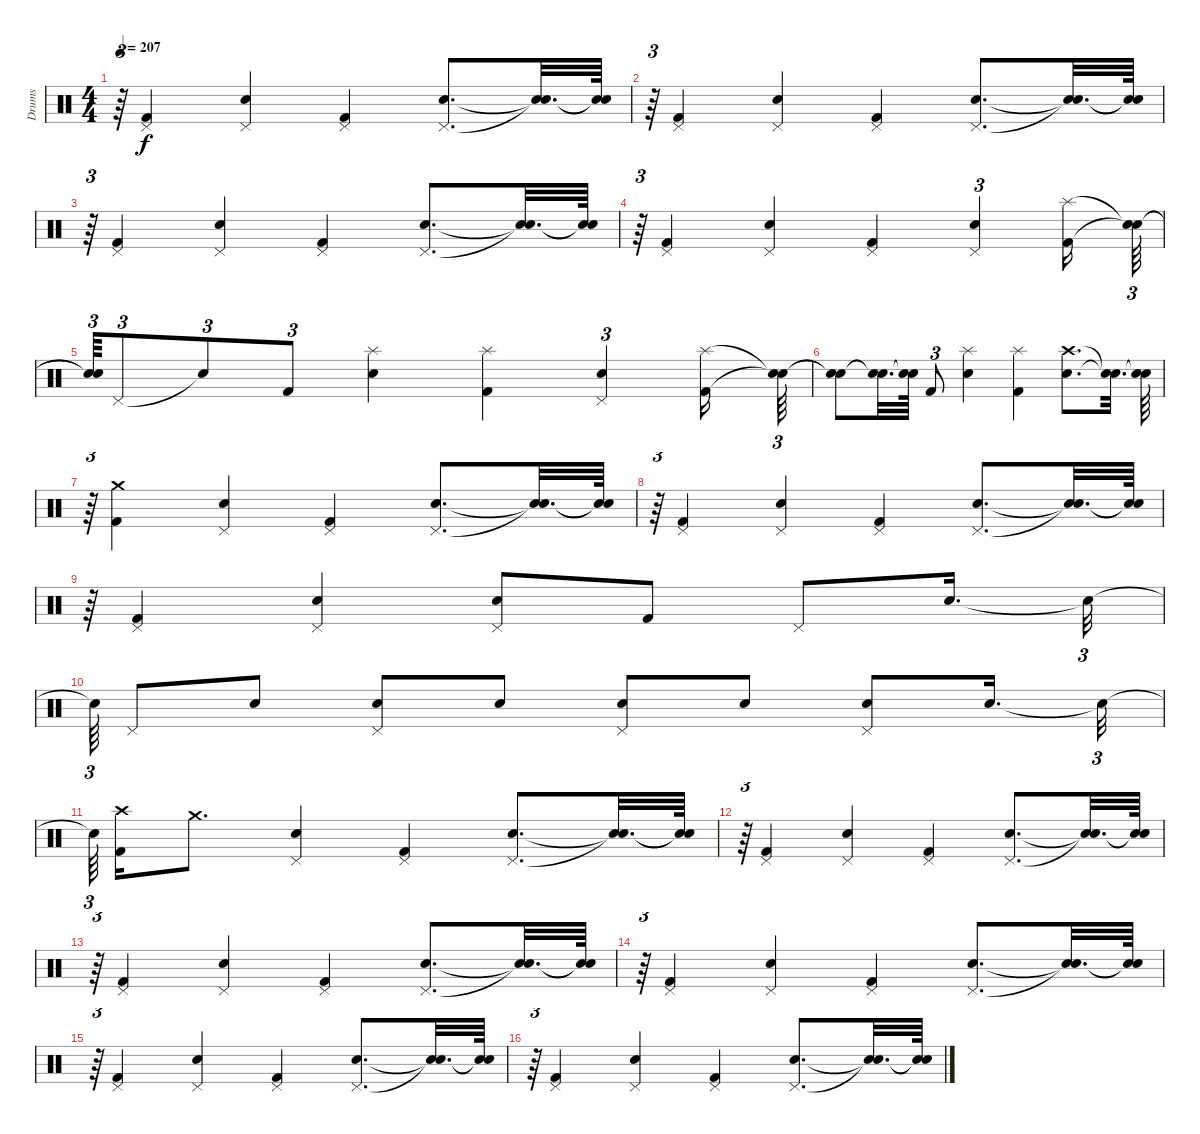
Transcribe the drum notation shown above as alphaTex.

\track ("Drums" "Drums") {instrument percussion}
\staff {score}
\articulation defaults
\ts (4 4)
\tempo 207
\clef neutral
\ks c
r.64{tu (3 2) dy f} ("Pedal Hi-Hat (hit)" "Kick (hit) 2").4 ("Pedal Hi-Hat (hit)" "Snare (hit) 2").4 ("Pedal Hi-Hat (hit)" "Kick (hit) 2").4 ("Pedal Hi-Hat (hit)" "Snare (hit) 2").8{d} ("Snare (hit)"{t} "Snare (hit)"{t}).32{d} ("Snare (hit)"{t} "Snare (hit)"{t}).64 |
r.64{tu (3 2)} ("Pedal Hi-Hat (hit)" "Kick (hit) 2").4 ("Pedal Hi-Hat (hit)" "Snare (hit) 2").4 ("Pedal Hi-Hat (hit)" "Kick (hit) 2").4 ("Pedal Hi-Hat (hit)" "Snare (hit) 2").8{d} ("Snare (hit)"{t} "Snare (hit)"{t}).32{d} ("Snare (hit)"{t} "Snare (hit)"{t}).64 |
r.64{tu (3 2)} ("Pedal Hi-Hat (hit)" "Kick (hit) 2").4 ("Pedal Hi-Hat (hit)" "Snare (hit) 2").4 ("Pedal Hi-Hat (hit)" "Kick (hit) 2").4 ("Pedal Hi-Hat (hit)" "Snare (hit) 2").8{d} ("Snare (hit)"{t} "Snare (hit)"{t}).32{d} ("Snare (hit)"{t} "Snare (hit)"{t}).64 |
r.64{tu (3 2)} ("Pedal Hi-Hat (hit)" "Kick (hit) 2").4 ("Pedal Hi-Hat (hit)" "Snare (hit) 2").4 ("Pedal Hi-Hat (hit)" "Kick (hit) 2").4 ("Pedal Hi-Hat (hit)" "Snare (hit) 2").4{tu (3 2)} ("Kick (hit) 2" "Splash (hit)").16 ("Snare (hit)"{t} "Snare (hit)"{t}).64{tu (3 2)} |
("Snare (hit)"{t} "Snare (hit)"{t}).64{tu (3 2)} "Pedal Hi-Hat (hit)".8{tu (3 2)} "Snare (hit)"{t}.8{tu (3 2)} "Kick (hit) 2".8{tu (3 2)} ("Splash (hit)" "Snare (hit) 2").4 ("Splash (hit)" "Kick (hit) 2").4 ("Pedal Hi-Hat (hit)" "Snare (hit) 2").4{tu (3 2)} ("Splash (hit)" "Kick (hit) 2").16 ("Snare (hit)"{t} "Snare (hit)"{t}).64{tu (3 2)} |
("Snare (hit)"{t} "Snare (hit)"{t}).8 ("Snare (hit)"{t} "Snare (hit)"{t}).32{d} ("Snare (hit)"{t} "Snare (hit)"{t}).64 "Kick (hit) 2".8{tu (3 2)} ("Splash (hit)" "Snare (hit) 2").4 ("Splash (hit)" "Kick (hit) 2").4 ("Crash high (hit)" "Snare (hit) 2").8{d} ("Snare (hit)"{t} "Snare (hit)"{t}).32{d} ("Snare (hit)"{t} "Snare (hit)"{t}).64 |
r.64{tu (3 2)} ("Kick (hit) 2" "Crash medium (hit)").4 ("Pedal Hi-Hat (hit)" "Snare (hit) 2").4 ("Pedal Hi-Hat (hit)" "Kick (hit) 2").4 ("Pedal Hi-Hat (hit)" "Snare (hit) 2").8{d} ("Snare (hit)"{t} "Snare (hit)"{t}).32{d} ("Snare (hit)"{t} "Snare (hit)"{t}).64 |
r.64{tu (3 2)} ("Pedal Hi-Hat (hit)" "Kick (hit) 2").4 ("Pedal Hi-Hat (hit)" "Snare (hit) 2").4 ("Pedal Hi-Hat (hit)" "Kick (hit) 2").4 ("Pedal Hi-Hat (hit)" "Snare (hit) 2").8{d} ("Snare (hit)"{t} "Snare (hit)"{t}).32{d} ("Snare (hit)"{t} "Snare (hit)"{t}).64 |
r.64{tu (3 2)} ("Pedal Hi-Hat (hit)" "Kick (hit) 2").4 ("Pedal Hi-Hat (hit)" "Snare (hit) 2").4 ("Pedal Hi-Hat (hit)" "Snare (hit) 2").8 "Kick (hit) 2".8 "Pedal Hi-Hat (hit)".8 "Snare (hit) 2".16{d} "Snare (hit)"{t}.32{tu (3 2)} |
"Snare (hit)"{t}.64{tu (3 2)} "Pedal Hi-Hat (hit)".8 "Snare (hit) 2".8 ("Pedal Hi-Hat (hit)" "Snare (hit) 2").8 "Snare (hit) 2".8 ("Pedal Hi-Hat (hit)" "Snare (hit) 2").8 "Snare (hit) 2".8 ("Pedal Hi-Hat (hit)" "Snare (hit) 2").8 "Snare (hit) 2".16{d} "Snare (hit)"{t}.32{tu (3 2)} |
"Snare (hit)"{t}.64{tu (3 2)} ("Kick (hit) 2" "Crash high (hit)").16 "Crash medium (hit)".8{d} ("Pedal Hi-Hat (hit)" "Snare (hit) 2").4 ("Pedal Hi-Hat (hit)" "Kick (hit) 2").4 ("Pedal Hi-Hat (hit)" "Snare (hit) 2").8{d} ("Snare (hit)"{t} "Snare (hit)"{t}).32{d} ("Snare (hit)"{t} "Snare (hit)"{t}).64 |
r.64{tu (3 2)} ("Pedal Hi-Hat (hit)" "Kick (hit) 2").4 ("Pedal Hi-Hat (hit)" "Snare (hit) 2").4 ("Pedal Hi-Hat (hit)" "Kick (hit) 2").4 ("Pedal Hi-Hat (hit)" "Snare (hit) 2").8{d} ("Snare (hit)"{t} "Snare (hit)"{t}).32{d} ("Snare (hit)"{t} "Snare (hit)"{t}).64 |
r.64{tu (3 2)} ("Pedal Hi-Hat (hit)" "Kick (hit) 2").4 ("Pedal Hi-Hat (hit)" "Snare (hit) 2").4 ("Pedal Hi-Hat (hit)" "Kick (hit) 2").4 ("Pedal Hi-Hat (hit)" "Snare (hit) 2").8{d} ("Snare (hit)"{t} "Snare (hit)"{t}).32{d} ("Snare (hit)"{t} "Snare (hit)"{t}).64 |
r.64{tu (3 2)} ("Pedal Hi-Hat (hit)" "Kick (hit) 2").4 ("Pedal Hi-Hat (hit)" "Snare (hit) 2").4 ("Pedal Hi-Hat (hit)" "Kick (hit) 2").4 ("Pedal Hi-Hat (hit)" "Snare (hit) 2").8{d} ("Snare (hit)"{t} "Snare (hit)"{t}).32{d} ("Snare (hit)"{t} "Snare (hit)"{t}).64 |
r.64{tu (3 2)} ("Pedal Hi-Hat (hit)" "Kick (hit) 2").4 ("Pedal Hi-Hat (hit)" "Snare (hit) 2").4 ("Pedal Hi-Hat (hit)" "Kick (hit) 2").4 ("Pedal Hi-Hat (hit)" "Snare (hit) 2").8{d} ("Snare (hit)"{t} "Snare (hit)"{t}).32{d} ("Snare (hit)"{t} "Snare (hit)"{t}).64 |
r.64{tu (3 2)} ("Pedal Hi-Hat (hit)" "Kick (hit) 2").4 ("Pedal Hi-Hat (hit)" "Snare (hit) 2").4 ("Pedal Hi-Hat (hit)" "Kick (hit) 2").4 ("Pedal Hi-Hat (hit)" "Snare (hit) 2").8{d} ("Snare (hit)"{t} "Snare (hit)"{t}).32{d} ("Snare (hit)"{t} "Snare (hit)"{t}).64
